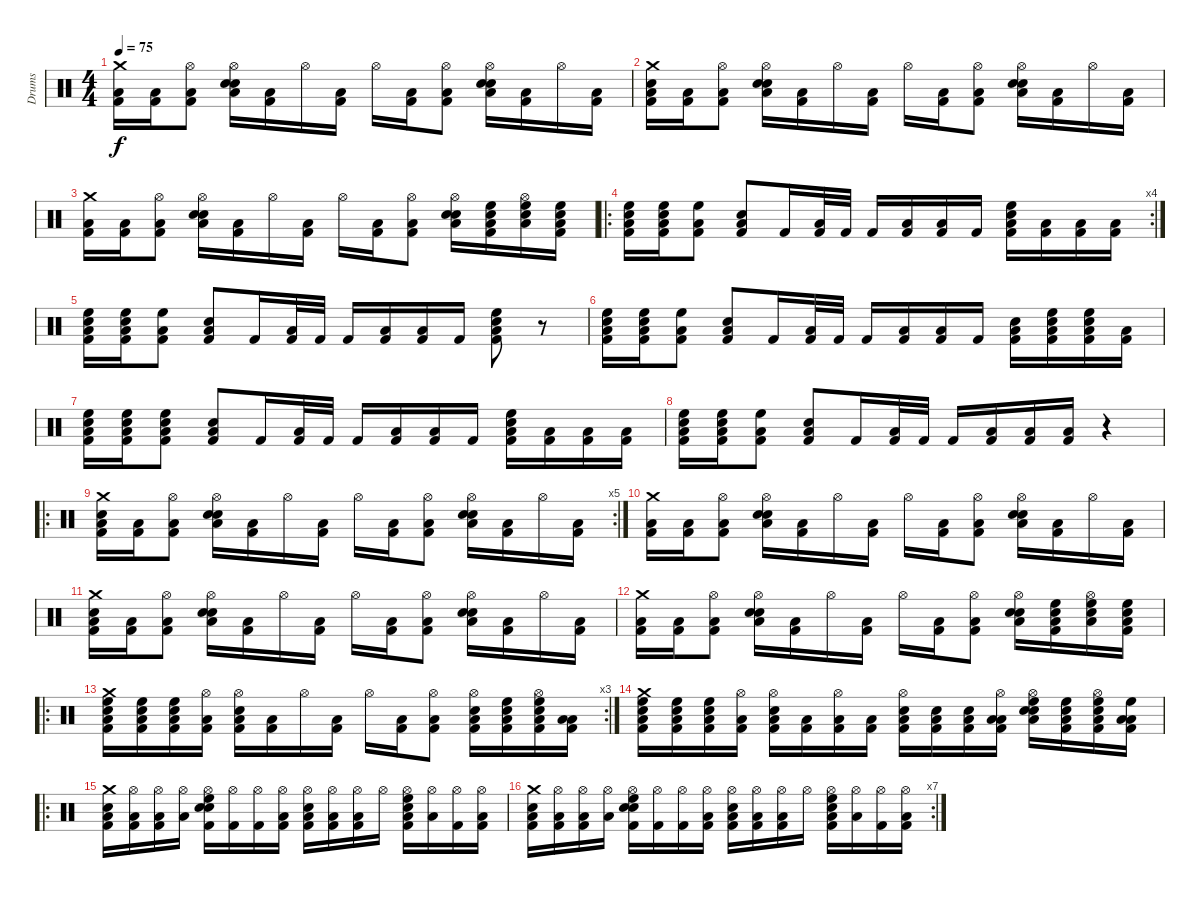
\track ("Drums" "Drums") {instrument percussion}
\staff {score}
\articulation defaults
\ts (4 4)
\tempo 75
\clef neutral
\ks c
("Crash medium (hit)" "Low Tom (hit)" "Kick (hit) 2").16{dy f} ("Low Tom (hit)" "Kick (hit) 2").16 ("Hi-Hat (open)" "Low Tom (hit)" "Kick (hit) 2").8 ("Hi-Hat (open)" "Low Tom (hit)" "Electric Snare (hit)" "Snare (hit) 2").16 ("Low Tom (hit)" "Kick (hit) 2").16 "Hi-Hat (open)".16 ("Low Tom (hit)" "Kick (hit) 2").16 "Hi-Hat (open)".16 ("Low Tom (hit)" "Kick (hit) 2").16 ("Hi-Hat (open)" "Low Tom (hit)" "Kick (hit) 2").8 ("Hi-Hat (open)" "Low Tom (hit)" "Electric Snare (hit)" "Snare (hit) 2").16 ("Low Tom (hit)" "Kick (hit) 2").16 "Hi-Hat (open)".16 ("Low Tom (hit)" "Kick (hit) 2").16 |
("Crash medium (hit)" "Snare (hit) 2" "Low Tom (hit)" "Kick (hit) 2").16 ("Low Tom (hit)" "Kick (hit) 2").16 ("Hi-Hat (open)" "Low Tom (hit)" "Kick (hit) 2").8 ("Hi-Hat (open)" "Low Tom (hit)" "Electric Snare (hit)" "Snare (hit) 2").16 ("Low Tom (hit)" "Kick (hit) 2").16 "Hi-Hat (open)".16 ("Low Tom (hit)" "Kick (hit) 2").16 "Hi-Hat (open)".16 ("Low Tom (hit)" "Kick (hit) 2").16 ("Hi-Hat (open)" "Low Tom (hit)" "Kick (hit) 2").8 ("Hi-Hat (open)" "Low Tom (hit)" "Electric Snare (hit)" "Snare (hit) 2").16 ("Low Tom (hit)" "Kick (hit) 2").16 "Hi-Hat (open)".16 ("Low Tom (hit)" "Kick (hit) 2").16 |
("Crash medium (hit)" "Low Tom (hit)" "Kick (hit) 2").16 ("Low Tom (hit)" "Kick (hit) 2").16 ("Hi-Hat (open)" "Low Tom (hit)" "Kick (hit) 2").8 ("Hi-Hat (open)" "Low Tom (hit)" "Electric Snare (hit)" "Snare (hit) 2").16 ("Low Tom (hit)" "Kick (hit) 2").16 "Hi-Hat (open)".16 ("Low Tom (hit)" "Kick (hit) 2").16 "Hi-Hat (open)".16 ("Low Tom (hit)" "Kick (hit) 2").16 ("Hi-Hat (open)" "Low Tom (hit)" "Kick (hit) 2").8 ("Hi-Hat (open)" "Low Tom (hit)" "Electric Snare (hit)" "Snare (hit) 2").16 ("High Floor Tom (hit)" "Snare (hit) 2" "Low Tom (hit)" "Kick (hit) 2").16 ("Hi-Hat (open)" "High Floor Tom (hit)" "Snare (hit) 2" "Low Tom (hit)").16 ("High Floor Tom (hit)" "Snare (hit) 2" "Low Tom (hit)" "Kick (hit) 2").16 |
\ro
\rc 4
("High Floor Tom (hit)" "Snare (hit) 2" "Kick (hit) 2" "Low Tom (hit)").16 ("High Floor Tom (hit)" "Snare (hit) 2" "Low Tom (hit)" "Kick (hit) 2").16 ("High Floor Tom (hit)" "Low Tom (hit)" "Kick (hit) 2").8 ("Low Tom (hit)" "Snare (hit) 2" "Kick (hit) 2").8 "Kick (hit) 2".16 ("Low Tom (hit)" "Kick (hit) 2").32 "Kick (hit) 2".32 "Kick (hit) 2".16 ("Low Tom (hit)" "Kick (hit) 2").16 ("Low Tom (hit)" "Kick (hit) 2").16 "Kick (hit) 2".16 ("High Floor Tom (hit)" "Low Tom (hit)" "Snare (hit) 2" "Kick (hit) 2").16 ("Low Tom (hit)" "Kick (hit) 2").16 ("Low Tom (hit)" "Kick (hit) 2").16 ("Low Tom (hit)" "Kick (hit) 2").16 |
("High Floor Tom (hit)" "Snare (hit) 2" "Kick (hit) 2" "Low Tom (hit)").16 ("High Floor Tom (hit)" "Snare (hit) 2" "Low Tom (hit)" "Kick (hit) 2").16 ("High Floor Tom (hit)" "Low Tom (hit)" "Kick (hit) 2").8 ("Low Tom (hit)" "Snare (hit) 2" "Kick (hit) 2").8 "Kick (hit) 2".16 ("Low Tom (hit)" "Kick (hit) 2").32 "Kick (hit) 2".32 "Kick (hit) 2".16 ("Low Tom (hit)" "Kick (hit) 2").16 ("Low Tom (hit)" "Kick (hit) 2").16 "Kick (hit) 2".16 ("High Floor Tom (hit)" "Low Tom (hit)" "Snare (hit) 2" "Kick (hit) 2").8 r.8 |
("High Floor Tom (hit)" "Snare (hit) 2" "Kick (hit) 2" "Low Tom (hit)").16 ("High Floor Tom (hit)" "Snare (hit) 2" "Low Tom (hit)" "Kick (hit) 2").16 ("High Floor Tom (hit)" "Low Tom (hit)" "Kick (hit) 2").8 ("Low Tom (hit)" "Snare (hit) 2" "Kick (hit) 2").8 "Kick (hit) 2".16 ("Low Tom (hit)" "Kick (hit) 2").32 "Kick (hit) 2".32 "Kick (hit) 2".16 ("Low Tom (hit)" "Kick (hit) 2").16 ("Low Tom (hit)" "Kick (hit) 2").16 "Kick (hit) 2".16 ("Low Tom (hit)" "Snare (hit) 2" "Kick (hit) 2").16 ("High Floor Tom (hit)" "Snare (hit) 2" "Low Tom (hit)" "Kick (hit) 2").16 ("High Floor Tom (hit)" "Snare (hit) 2" "Low Tom (hit)" "Kick (hit) 2").16 ("Low Tom (hit)" "Kick (hit) 2").16 |
("High Floor Tom (hit)" "Snare (hit) 2" "Kick (hit) 2" "Low Tom (hit)").16 ("High Floor Tom (hit)" "Snare (hit) 2" "Low Tom (hit)" "Kick (hit) 2").16 ("High Floor Tom (hit)" "Snare (hit) 2" "Low Tom (hit)" "Kick (hit) 2").8 ("Low Tom (hit)" "Snare (hit) 2" "Kick (hit) 2").8 "Kick (hit) 2".16 ("Low Tom (hit)" "Kick (hit) 2").32 "Kick (hit) 2".32 "Kick (hit) 2".16 ("Low Tom (hit)" "Kick (hit) 2").16 ("Low Tom (hit)" "Kick (hit) 2").16 "Kick (hit) 2".16 ("High Floor Tom (hit)" "Low Tom (hit)" "Snare (hit) 2" "Kick (hit) 2").16 ("Low Tom (hit)" "Kick (hit) 2").16 ("Low Tom (hit)" "Kick (hit) 2").16 ("Low Tom (hit)" "Kick (hit) 2").16 |
("High Floor Tom (hit)" "Snare (hit) 2" "Kick (hit) 2" "Low Tom (hit)").16 ("High Floor Tom (hit)" "Snare (hit) 2" "Low Tom (hit)" "Kick (hit) 2").16 ("High Floor Tom (hit)" "Low Tom (hit)" "Kick (hit) 2").8 ("Low Tom (hit)" "Snare (hit) 2" "Kick (hit) 2").8 "Kick (hit) 2".16 ("Low Tom (hit)" "Kick (hit) 2").32 "Kick (hit) 2".32 "Kick (hit) 2".16 ("Low Tom (hit)" "Kick (hit) 2").16 ("Low Tom (hit)" "Kick (hit) 2").16 ("Low Tom (hit)" "Kick (hit) 2").16 r.4 |
\ro
\rc 5
("Crash medium (hit)" "Snare (hit) 2" "Low Tom (hit)" "Kick (hit) 2").16 ("Low Tom (hit)" "Kick (hit) 2").16 ("Hi-Hat (open)" "Low Tom (hit)" "Kick (hit) 2").8 ("Hi-Hat (open)" "Low Tom (hit)" "Electric Snare (hit)" "Snare (hit) 2").16 ("Low Tom (hit)" "Kick (hit) 2").16 "Hi-Hat (open)".16 ("Low Tom (hit)" "Kick (hit) 2").16 "Hi-Hat (open)".16 ("Low Tom (hit)" "Kick (hit) 2").16 ("Hi-Hat (open)" "Low Tom (hit)" "Kick (hit) 2").8 ("Hi-Hat (open)" "Low Tom (hit)" "Electric Snare (hit)" "Snare (hit) 2").16 ("Low Tom (hit)" "Kick (hit) 2").16 "Hi-Hat (open)".16 ("Low Tom (hit)" "Kick (hit) 2").16 |
("Crash medium (hit)" "Low Tom (hit)" "Kick (hit) 2").16 ("Low Tom (hit)" "Kick (hit) 2").16 ("Hi-Hat (open)" "Low Tom (hit)" "Kick (hit) 2").8 ("Hi-Hat (open)" "Low Tom (hit)" "Electric Snare (hit)" "Snare (hit) 2").16 ("Low Tom (hit)" "Kick (hit) 2").16 "Hi-Hat (open)".16 ("Low Tom (hit)" "Kick (hit) 2").16 "Hi-Hat (open)".16 ("Low Tom (hit)" "Kick (hit) 2").16 ("Hi-Hat (open)" "Low Tom (hit)" "Kick (hit) 2").8 ("Hi-Hat (open)" "Low Tom (hit)" "Electric Snare (hit)" "Snare (hit) 2").16 ("Low Tom (hit)" "Kick (hit) 2").16 "Hi-Hat (open)".16 ("Low Tom (hit)" "Kick (hit) 2").16 |
("Crash medium (hit)" "Snare (hit) 2" "Low Tom (hit)" "Kick (hit) 2").16 ("Low Tom (hit)" "Kick (hit) 2").16 ("Hi-Hat (open)" "Low Tom (hit)" "Kick (hit) 2").8 ("Hi-Hat (open)" "Low Tom (hit)" "Electric Snare (hit)" "Snare (hit) 2").16 ("Low Tom (hit)" "Kick (hit) 2").16 "Hi-Hat (open)".16 ("Low Tom (hit)" "Kick (hit) 2").16 "Hi-Hat (open)".16 ("Low Tom (hit)" "Kick (hit) 2").16 ("Hi-Hat (open)" "Low Tom (hit)" "Kick (hit) 2").8 ("Hi-Hat (open)" "Low Tom (hit)" "Electric Snare (hit)" "Snare (hit) 2").16 ("Low Tom (hit)" "Kick (hit) 2").16 "Hi-Hat (open)".16 ("Low Tom (hit)" "Kick (hit) 2").16 |
("Crash medium (hit)" "Low Tom (hit)" "Kick (hit) 2").16 ("Low Tom (hit)" "Kick (hit) 2").16 ("Hi-Hat (open)" "Low Tom (hit)" "Kick (hit) 2").8 ("Hi-Hat (open)" "Low Tom (hit)" "Electric Snare (hit)" "Snare (hit) 2").16 ("Low Tom (hit)" "Kick (hit) 2").16 "Hi-Hat (open)".16 ("Low Tom (hit)" "Kick (hit) 2").16 "Hi-Hat (open)".16 ("Low Tom (hit)" "Kick (hit) 2").16 ("Hi-Hat (open)" "Low Tom (hit)" "Kick (hit) 2").8 ("Hi-Hat (open)" "Low Tom (hit)" "Electric Snare (hit)" "Snare (hit) 2").16 ("High Floor Tom (hit)" "Snare (hit) 2" "Low Tom (hit)" "Kick (hit) 2").16 ("Hi-Hat (open)" "High Floor Tom (hit)" "Snare (hit) 2" "Low Tom (hit)").16 ("High Floor Tom (hit)" "Snare (hit) 2" "Low Tom (hit)" "Kick (hit) 2").16 |
\ro
\rc 3
("Crash medium (hit)" "High Floor Tom (hit)" "Snare (hit) 2" "Low Tom (hit)" "Kick (hit) 2").16 ("High Floor Tom (hit)" "Snare (hit) 2" "Low Tom (hit)" "Kick (hit) 2").16 ("High Floor Tom (hit)" "Low Tom (hit)" "Snare (hit) 2" "Kick (hit) 2").16 ("Hi-Hat (open)" "Low Tom (hit)" "Kick (hit) 2").16 ("Hi-Hat (open)" "Low Tom (hit)" "Electric Snare (hit)" "Kick (hit) 2").16 ("Low Tom (hit)" "Kick (hit) 2").16 "Hi-Hat (open)".16 ("Low Tom (hit)" "Kick (hit) 2").16 "Hi-Hat (open)".16 ("Low Tom (hit)" "Kick (hit) 2").16 ("Hi-Hat (open)" "Low Tom (hit)" "Kick (hit) 2").8 ("Hi-Hat (open)" "Low Tom (hit)" "Electric Snare (hit)" "Kick (hit) 2").16 ("High Floor Tom (hit)" "Snare (hit) 2" "Low Tom (hit)" "Kick (hit) 2").16 ("Hi-Hat (open)" "High Floor Tom (hit)" "Low Tom (hit)" "Snare (hit) 2" "Kick (hit) 2").16 ("Low Tom (hit)" "Low Tom (hit)" "Kick (hit) 2").16 |
("Crash medium (hit)" "High Floor Tom (hit)" "Snare (hit) 2" "Low Tom (hit)" "Kick (hit) 2").16 ("High Floor Tom (hit)" "Snare (hit) 2" "Low Tom (hit)" "Kick (hit) 2").16 ("High Floor Tom (hit)" "Low Tom (hit)" "Snare (hit) 2" "Kick (hit) 2").16 ("Hi-Hat (open)" "Low Tom (hit)" "Kick (hit) 2").16 ("Hi-Hat (open)" "Low Tom (hit)" "Electric Snare (hit)" "Kick (hit) 2").16 ("Low Tom (hit)" "Kick (hit) 2").16 ("Hi-Hat (open)" "Low Tom (hit)" "Kick (hit) 2").16 ("Low Tom (hit)" "Kick (hit) 2").16 ("Hi-Hat (open)" "Snare (hit) 2" "Low Tom (hit)" "Kick (hit) 2").16 ("Snare (hit) 2" "Low Tom (hit)" "Kick (hit) 2").16 ("Snare (hit) 2" "Kick (hit) 2" "Low Tom (hit)").16 ("Hi-Hat (open)" "Low Tom (hit)" "Low Tom (hit)" "Kick (hit) 2").16 ("Hi-Hat (open)" "High Floor Tom (hit)" "Low Tom (hit)" "Electric Snare (hit)" "Snare (hit) 2").16 ("High Floor Tom (hit)" "Snare (hit) 2" "Low Tom (hit)" "Kick (hit) 2").16 ("Hi-Hat (open)" "High Floor Tom (hit)" "Low Tom (hit)" "Snare (hit) 2" "Kick (hit) 2").16 ("High Floor Tom (hit)" "Low Tom (hit)" "Low Tom (hit)" "Kick (hit) 2").16 |
\ro
("Crash medium (hit)" "Low Tom (hit)" "Snare (hit) 2" "Kick (hit) 2").16 ("Hi-Hat (open)" "Low Tom (hit)" "Kick (hit) 2").16 ("Hi-Hat (open)" "Low Tom (hit)" "Kick (hit) 2").16 ("Hi-Hat (open)" "Low Tom (hit)").16 ("High Floor Tom (hit)" "Hi-Hat (open)" "Snare (hit) 2" "Electric Snare (hit)" "Kick (hit) 2").16 ("Hi-Hat (open)" "Kick (hit) 2").16 ("Hi-Hat (open)" "Kick (hit) 2").16 ("Hi-Hat (open)" "Low Tom (hit)" "Kick (hit) 2").16 ("Hi-Hat (open)" "Snare (hit) 2" "Kick (hit) 2" "Low Tom (hit)").16 ("Hi-Hat (open)" "Low Tom (hit)" "Kick (hit) 2").16 ("Hi-Hat (open)" "Low Tom (hit)" "Kick (hit) 2").16 "Hi-Hat (open)".16 ("High Floor Tom (hit)" "Hi-Hat (open)" "Low Tom (hit)" "Electric Snare (hit)" "Kick (hit) 2").16 ("Hi-Hat (open)" "Low Tom (hit)").16 ("Hi-Hat (open)" "Kick (hit) 2").16 ("Hi-Hat (open)" "Low Tom (hit)" "Kick (hit) 2").16 |
\rc 7
("Crash medium (hit)" "Low Tom (hit)" "Snare (hit) 2" "Kick (hit) 2").16 ("Hi-Hat (open)" "Low Tom (hit)" "Kick (hit) 2").16 ("Hi-Hat (open)" "Low Tom (hit)" "Kick (hit) 2").16 ("Hi-Hat (open)" "Low Tom (hit)").16 ("High Floor Tom (hit)" "Hi-Hat (open)" "Snare (hit) 2" "Electric Snare (hit)" "Kick (hit) 2").16 ("Hi-Hat (open)" "Kick (hit) 2").16 ("Hi-Hat (open)" "Kick (hit) 2").16 ("Hi-Hat (open)" "Low Tom (hit)" "Kick (hit) 2").16 ("Hi-Hat (open)" "Snare (hit) 2" "Kick (hit) 2" "Low Tom (hit)").16 ("Hi-Hat (open)" "Low Tom (hit)" "Kick (hit) 2").16 ("Hi-Hat (open)" "Low Tom (hit)" "Kick (hit) 2").16 "Hi-Hat (open)".16 ("High Floor Tom (hit)" "Hi-Hat (open)" "Low Tom (hit)" "Electric Snare (hit)" "Kick (hit) 2").16 ("Hi-Hat (open)" "Low Tom (hit)").16 ("Hi-Hat (open)" "Kick (hit) 2").16 ("Hi-Hat (open)" "Low Tom (hit)" "Kick (hit) 2").16
